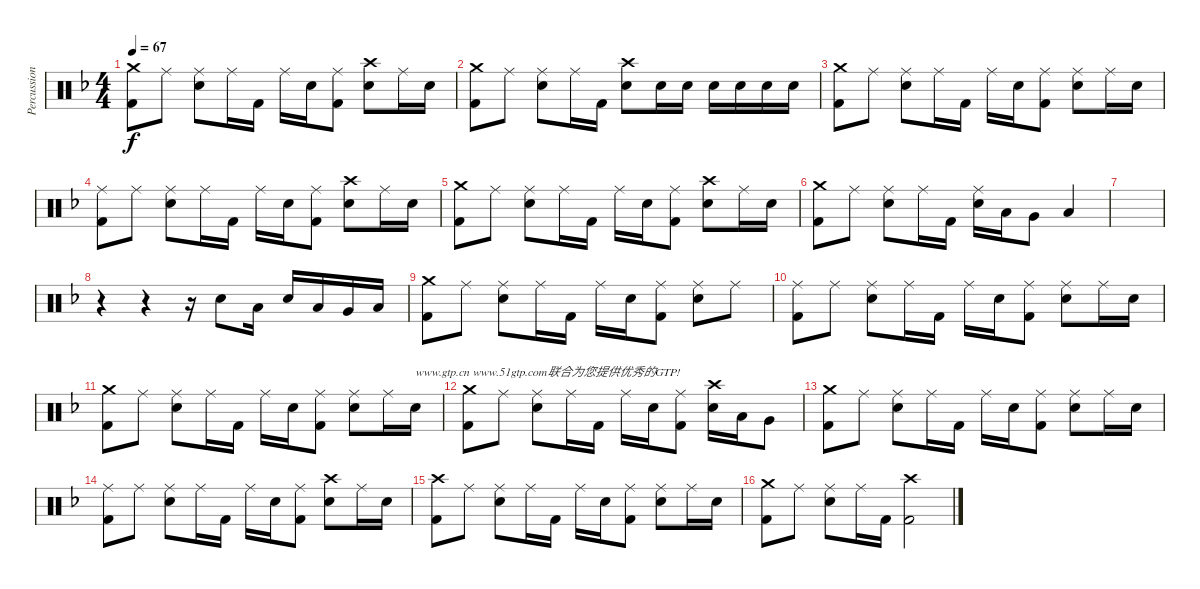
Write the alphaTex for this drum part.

\track ("Percussion" "Percussion") {instrument percussion}
\staff {score}
\articulation defaults
\ts (4 4)
\tempo 67
\clef neutral
\ks f
("Crash medium (hit)" "Kick (hit) 2").8{dy f} "Ride (middle)".8 ("Ride (middle)" "Snare (hit) 2").8 "Ride (middle)".16 "Kick (hit) 2".16 "Ride (middle)".16 "Electric Snare (hit)".16 ("Ride (middle)" "Kick (hit) 2").8 ("Crash high (hit)" "Electric Snare (hit)").8 "Ride (middle)".16 "Electric Snare (hit)".16 |
("Crash medium (hit)" "Kick (hit) 2").8 "Ride (middle)".8 ("Ride (middle)" "Snare (hit) 2").8 "Ride (middle)".16 "Kick (hit) 2".16 ("Crash high (hit)" "Electric Snare (hit)").8 "Electric Snare (hit)".16 "Electric Snare (hit)".16 "Electric Snare (hit)".16 "Electric Snare (hit)".16 "Electric Snare (hit)".16 "Electric Snare (hit)".16 |
("Crash medium (hit)" "Kick (hit) 2").8 "Ride (middle)".8 ("Ride (middle)" "Snare (hit) 2").8 "Ride (middle)".16 "Kick (hit) 2".16 "Ride (middle)".16 "Electric Snare (hit)".16 ("Ride (middle)" "Kick (hit) 2").8 ("Ride (middle)" "Electric Snare (hit)").8 "Ride (middle)".16 "Electric Snare (hit)".16 |
("Ride (middle)" "Kick (hit) 2").8 "Ride (middle)".8 ("Ride (middle)" "Snare (hit) 2").8 "Ride (middle)".16 "Kick (hit) 2".16 "Ride (middle)".16 "Electric Snare (hit)".16 ("Ride (middle)" "Kick (hit) 2").8 ("Crash high (hit)" "Electric Snare (hit)").8 "Ride (middle)".16 "Electric Snare (hit)".16 |
("Crash medium (hit)" "Kick (hit) 2").8 "Ride (middle)".8 ("Ride (middle)" "Snare (hit) 2").8 "Ride (middle)".16 "Kick (hit) 2".16 "Ride (middle)".16 "Electric Snare (hit)".16 ("Ride (middle)" "Kick (hit) 2").8 ("Crash high (hit)" "Electric Snare (hit)").8 "Ride (middle)".16 "Electric Snare (hit)".16 |
("Crash medium (hit)" "Kick (hit) 2").8 "Ride (middle)".8 ("Ride (middle)" "Snare (hit) 2").8 "Ride (middle)".16 "Kick (hit) 2".16 ("Ride (middle)" "Electric Snare (hit)").16 "Low Tom (hit)".16 "Very Low Tom (hit)".8 "Low Floor Tom (hit)".4 |
|
r.4 r.4 r.16 "Electric Snare (hit)".8 "Low Tom (hit)".16 "Electric Snare (hit)".16 "Low Tom (hit)".16 "Very Low Tom (hit)".16 "Low Floor Tom (hit)".16 |
("Crash medium (hit)" "Kick (hit) 2").8 "Ride (middle)".8 ("Ride (middle)" "Snare (hit) 2").8 "Ride (middle)".16 "Kick (hit) 2".16 "Ride (middle)".16 "Electric Snare (hit)".16 ("Ride (middle)" "Kick (hit) 2").8 ("Ride (middle)" "Electric Snare (hit)").8 "Ride (middle)".8 |
("Ride (middle)" "Kick (hit) 2").8 "Ride (middle)".8 ("Ride (middle)" "Snare (hit) 2").8 "Ride (middle)".16 "Kick (hit) 2".16 "Ride (middle)".16 "Electric Snare (hit)".16 ("Ride (middle)" "Kick (hit) 2").8 ("Ride (middle)" "Electric Snare (hit)").8 "Ride (middle)".16 "Electric Snare (hit)".16 |
("Crash medium (hit)" "Kick (hit) 2").8 "Ride (middle)".8 ("Ride (middle)" "Snare (hit) 2").8 "Ride (middle)".16 "Kick (hit) 2".16 "Ride (middle)".16 "Electric Snare (hit)".16 ("Ride (middle)" "Kick (hit) 2").8 ("Ride (middle)" "Electric Snare (hit)").8 "Ride (middle)".16 "Electric Snare (hit)".16{txt "www.gtp.cn www.51gtp.com联合为您提供优秀的GTP!"} |
("Crash medium (hit)" "Kick (hit) 2").8 "Ride (middle)".8 ("Ride (middle)" "Snare (hit) 2").8 "Ride (middle)".16 "Kick (hit) 2".16 "Ride (middle)".16 "Electric Snare (hit)".16 ("Ride (middle)" "Kick (hit) 2").8 ("Crash high (hit)" "Electric Snare (hit)").16 "Low Tom (hit)".16 "Very Low Tom (hit)".8 |
("Crash medium (hit)" "Kick (hit) 2").8 "Ride (middle)".8 ("Ride (middle)" "Snare (hit) 2").8 "Ride (middle)".16 "Kick (hit) 2".16 "Ride (middle)".16 "Electric Snare (hit)".16 ("Ride (middle)" "Kick (hit) 2").8 ("Ride (middle)" "Electric Snare (hit)").8 "Ride (middle)".16 "Electric Snare (hit)".16 |
("Ride (middle)" "Kick (hit) 2").8 "Ride (middle)".8 ("Ride (middle)" "Snare (hit) 2").8 "Ride (middle)".16 "Kick (hit) 2".16 "Ride (middle)".16 "Electric Snare (hit)".16 ("Ride (middle)" "Kick (hit) 2").8 ("Crash high (hit)" "Electric Snare (hit)").8 "Ride (middle)".16 "Electric Snare (hit)".16 |
("Crash high (hit)" "Kick (hit) 2").8 "Ride (middle)".8 ("Ride (middle)" "Snare (hit) 2").8 "Ride (middle)".16 "Kick (hit) 2".16 "Ride (middle)".16 "Electric Snare (hit)".16 ("Ride (middle)" "Kick (hit) 2").8 ("Ride (middle)" "Electric Snare (hit)").8 "Ride (middle)".16 "Electric Snare (hit)".16 |
("Crash medium (hit)" "Kick (hit) 2").8 "Ride (middle)".8 ("Ride (middle)" "Electric Snare (hit)").8 "Ride (middle)".16 "Kick (hit) 2".16 ("Crash high (hit)" "Kick (hit) 2").2
